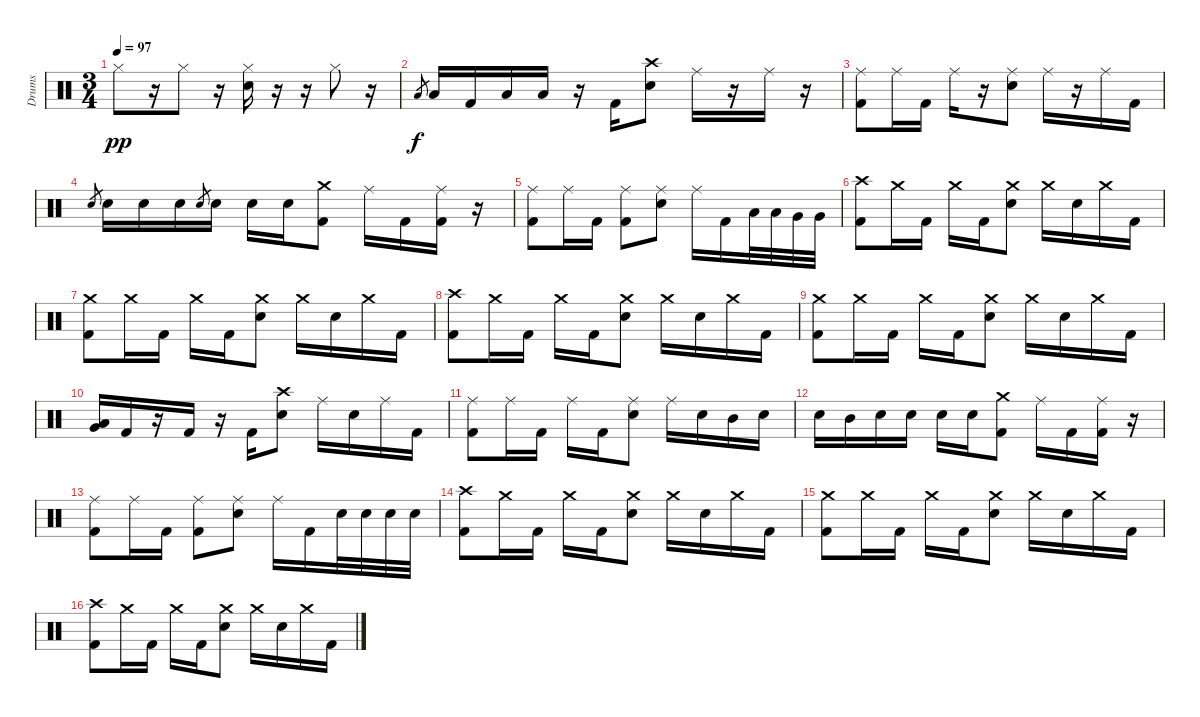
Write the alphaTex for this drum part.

\track ("Drums" "Drums") {instrument percussion}
\staff {score}
\articulation defaults
\ts (3 4)
\tempo 97
\clef neutral
\ks c "Hi-Hat (closed)".8{dy pp}
r.16 "Hi-Hat (closed)".8 r.16 ("Hi-Hat (closed)" "Electric Snare (hit)").16 r.16 r.16 "Hi-Hat (closed)".8 r.16 |
"Low Tom (hit)".8{gr dy f} "Low Tom (hit)".16 "Kick (hit) 2".16 "Low Tom (hit)".16 "Low Tom (hit)".16 r.16 "Kick (hit) 2".16 ("Crash high (hit)" "Electric Snare (hit)").8 "Ride (middle)".16 r.16 "Ride (middle)".16 r.16 |
("Ride (middle)" "Kick (hit) 2").8 "Ride (middle)".16 "Kick (hit) 2".16 "Ride (middle)".16 r.16 ("Ride (middle)" "Electric Snare (hit)").8 "Ride (middle)".16 r.16 "Ride (middle)".16 "Kick (hit) 2".16 |
"Electric Snare (hit)".8{gr} "Electric Snare (hit)".16 "Electric Snare (hit)".16 "Electric Snare (hit)".16 "Electric Snare (hit)".8{gr} "Electric Snare (hit)".16 "Electric Snare (hit)".16 "Electric Snare (hit)".16 ("Crash medium (hit)" "Kick (hit) 2").8 "Ride (middle)".16 "Kick (hit) 2".16 ("Ride (middle)" "Kick (hit) 2").16 r.16 |
("Ride (middle)" "Kick (hit) 2").8 "Ride (middle)".16 "Kick (hit) 2".16 ("Ride (middle)" "Kick (hit) 2").8 ("Ride (middle)" "Electric Snare (hit)").8 "Ride (middle)".16 "Kick (hit) 2".16 "Low Tom (hit)".32 "Low Tom (hit)".32 "Very Low Tom (hit)".32 "Very Low Tom (hit)".32 |
("Crash high (hit)" "Kick (hit) 2").8 "Crash medium (hit)".16 "Kick (hit) 2".16 "Crash medium (hit)".16 "Kick (hit) 2".16 ("Crash medium (hit)" "Electric Snare (hit)").8 "Crash medium (hit)".16 "Electric Snare (hit)".16 "Crash medium (hit)".16 "Kick (hit) 2".16 |
("Crash medium (hit)" "Kick (hit) 2").8 "Crash medium (hit)".16 "Kick (hit) 2".16 "Crash medium (hit)".16 "Kick (hit) 2".16 ("Crash medium (hit)" "Electric Snare (hit)").8 "Crash medium (hit)".16 "Electric Snare (hit)".16 "Crash medium (hit)".16 "Kick (hit) 2".16 |
("Crash high (hit)" "Kick (hit) 2").8 "Crash medium (hit)".16 "Kick (hit) 2".16 "Crash medium (hit)".16 "Kick (hit) 2".16 ("Crash medium (hit)" "Electric Snare (hit)").8 "Crash medium (hit)".16 "Electric Snare (hit)".16 "Crash medium (hit)".16 "Kick (hit) 2".16 |
("Crash medium (hit)" "Kick (hit) 2").8 "Crash medium (hit)".16 "Kick (hit) 2".16 "Crash medium (hit)".16 "Kick (hit) 2".16 ("Crash medium (hit)" "Electric Snare (hit)").8 "Crash medium (hit)".16 "Electric Snare (hit)".16 "Crash medium (hit)".16 "Kick (hit) 2".16 |
("Low Tom (hit)" "Very Low Tom (hit)").16 "Kick (hit) 2".16 r.16 "Kick (hit) 2".16 r.16 "Kick (hit) 2".16 ("Crash high (hit)" "Electric Snare (hit)").8 "Ride (middle)".16 "Electric Snare (hit)".16 "Ride (middle)".16 "Kick (hit) 2".16 |
("Ride (middle)" "Kick (hit) 2").8 "Ride (middle)".16 "Kick (hit) 2".16 "Ride (middle)".16 "Kick (hit) 2".16 ("Ride (middle)" "Electric Snare (hit)").8 "Ride (middle)".16 "Electric Snare (hit)".16 "Mid Tom (hit)".16 "Electric Snare (hit)".16 |
"Electric Snare (hit)".16 "Mid Tom (hit)".16 "Electric Snare (hit)".16 "Electric Snare (hit)".16 "Electric Snare (hit)".16 "Electric Snare (hit)".16 ("Crash medium (hit)" "Kick (hit) 2").8 "Ride (middle)".16 "Kick (hit) 2".16 ("Ride (middle)" "Kick (hit) 2").16 r.16 |
("Ride (middle)" "Kick (hit) 2").8 "Ride (middle)".16 "Kick (hit) 2".16 ("Ride (middle)" "Kick (hit) 2").8 ("Ride (middle)" "Electric Snare (hit)").8 "Ride (middle)".16 "Kick (hit) 2".16 "Electric Snare (hit)".32 "Electric Snare (hit)".32 "Electric Snare (hit)".32 "Electric Snare (hit)".32 |
("Crash high (hit)" "Kick (hit) 2").8 "Crash medium (hit)".16 "Kick (hit) 2".16 "Crash medium (hit)".16 "Kick (hit) 2".16 ("Crash medium (hit)" "Electric Snare (hit)").8 "Crash medium (hit)".16 "Electric Snare (hit)".16 "Crash medium (hit)".16 "Kick (hit) 2".16 |
("Crash medium (hit)" "Kick (hit) 2").8 "Crash medium (hit)".16 "Kick (hit) 2".16 "Crash medium (hit)".16 "Kick (hit) 2".16 ("Crash medium (hit)" "Electric Snare (hit)").8 "Crash medium (hit)".16 "Electric Snare (hit)".16 "Crash medium (hit)".16 "Kick (hit) 2".16 |
("Crash high (hit)" "Kick (hit) 2").8 "Crash medium (hit)".16 "Kick (hit) 2".16 "Crash medium (hit)".16 "Kick (hit) 2".16 ("Crash medium (hit)" "Electric Snare (hit)").8 "Crash medium (hit)".16 "Electric Snare (hit)".16 "Crash medium (hit)".16 "Kick (hit) 2".16
